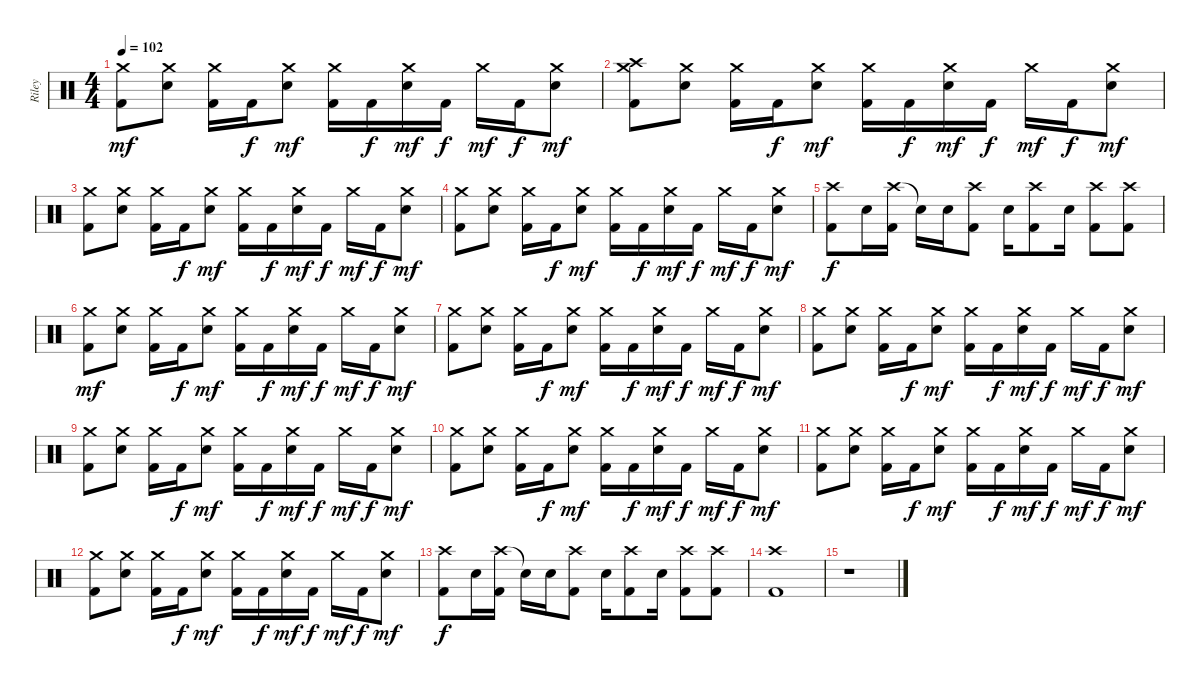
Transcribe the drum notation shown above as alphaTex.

\track ("Riley" "Riley") {instrument percussion}
\staff {score}
\articulation defaults
\ts (4 4)
\tempo 102
\clef neutral
\ks c
("Crash medium (hit)" "Kick (hit) 2").8{dy mf} ("Crash medium (hit)" "Electric Snare (hit)").8 ("Crash medium (hit)" "Kick (hit) 2").16 "Kick (hit) 2".16{dy f} ("Crash medium (hit)" "Electric Snare (hit)").8{dy mf} ("Crash medium (hit)" "Kick (hit) 2").16 "Kick (hit) 2".16{dy f} ("Crash medium (hit)" "Electric Snare (hit)").16{dy mf} "Kick (hit) 2".16{dy f} "Crash medium (hit)".16{dy mf} "Kick (hit) 2".16{dy f} ("Crash medium (hit)" "Electric Snare (hit)").8{dy mf} |
("Crash medium (hit)" "Crash high (hit)" "Kick (hit) 2").8 ("Crash medium (hit)" "Electric Snare (hit)").8 ("Crash medium (hit)" "Kick (hit) 2").16 "Kick (hit) 2".16{dy f} ("Crash medium (hit)" "Electric Snare (hit)").8{dy mf} ("Crash medium (hit)" "Kick (hit) 2").16 "Kick (hit) 2".16{dy f} ("Crash medium (hit)" "Electric Snare (hit)").16{dy mf} "Kick (hit) 2".16{dy f} "Crash medium (hit)".16{dy mf} "Kick (hit) 2".16{dy f} ("Crash medium (hit)" "Electric Snare (hit)").8{dy mf} |
("Crash medium (hit)" "Kick (hit) 2").8 ("Crash medium (hit)" "Electric Snare (hit)").8 ("Crash medium (hit)" "Kick (hit) 2").16 "Kick (hit) 2".16{dy f} ("Crash medium (hit)" "Electric Snare (hit)").8{dy mf} ("Crash medium (hit)" "Kick (hit) 2").16 "Kick (hit) 2".16{dy f} ("Crash medium (hit)" "Electric Snare (hit)").16{dy mf} "Kick (hit) 2".16{dy f} "Crash medium (hit)".16{dy mf} "Kick (hit) 2".16{dy f} ("Crash medium (hit)" "Electric Snare (hit)").8{dy mf} |
("Crash medium (hit)" "Kick (hit) 2").8 ("Crash medium (hit)" "Electric Snare (hit)").8 ("Crash medium (hit)" "Kick (hit) 2").16 "Kick (hit) 2".16{dy f} ("Crash medium (hit)" "Electric Snare (hit)").8{dy mf} ("Crash medium (hit)" "Kick (hit) 2").16 "Kick (hit) 2".16{dy f} ("Crash medium (hit)" "Electric Snare (hit)").16{dy mf} "Kick (hit) 2".16{dy f} "Crash medium (hit)".16{dy mf} "Kick (hit) 2".16{dy f} ("Crash medium (hit)" "Electric Snare (hit)").8{dy mf} |
("Crash high (hit)" "Kick (hit) 2").8{dy f} "Electric Snare (hit)".16 ("Crash high (hit)" "Kick (hit) 2").16 "Snare (hit)"{t}.16 "Electric Snare (hit)".16 ("Crash high (hit)" "Kick (hit) 2").8 "Electric Snare (hit)".16 ("Crash high (hit)" "Kick (hit) 2").8 "Electric Snare (hit)".16 ("Crash high (hit)" "Kick (hit) 2").8 ("Crash high (hit)" "Kick (hit) 2").8 |
("Crash medium (hit)" "Kick (hit) 2").8{dy mf} ("Crash medium (hit)" "Electric Snare (hit)").8 ("Crash medium (hit)" "Kick (hit) 2").16 "Kick (hit) 2".16{dy f} ("Crash medium (hit)" "Electric Snare (hit)").8{dy mf} ("Crash medium (hit)" "Kick (hit) 2").16 "Kick (hit) 2".16{dy f} ("Crash medium (hit)" "Electric Snare (hit)").16{dy mf} "Kick (hit) 2".16{dy f} "Crash medium (hit)".16{dy mf} "Kick (hit) 2".16{dy f} ("Crash medium (hit)" "Electric Snare (hit)").8{dy mf} |
("Crash medium (hit)" "Kick (hit) 2").8 ("Crash medium (hit)" "Electric Snare (hit)").8 ("Crash medium (hit)" "Kick (hit) 2").16 "Kick (hit) 2".16{dy f} ("Crash medium (hit)" "Electric Snare (hit)").8{dy mf} ("Crash medium (hit)" "Kick (hit) 2").16 "Kick (hit) 2".16{dy f} ("Crash medium (hit)" "Electric Snare (hit)").16{dy mf} "Kick (hit) 2".16{dy f} "Crash medium (hit)".16{dy mf} "Kick (hit) 2".16{dy f} ("Crash medium (hit)" "Electric Snare (hit)").8{dy mf} |
("Crash medium (hit)" "Kick (hit) 2").8 ("Crash medium (hit)" "Electric Snare (hit)").8 ("Crash medium (hit)" "Kick (hit) 2").16 "Kick (hit) 2".16{dy f} ("Crash medium (hit)" "Electric Snare (hit)").8{dy mf} ("Crash medium (hit)" "Kick (hit) 2").16 "Kick (hit) 2".16{dy f} ("Crash medium (hit)" "Electric Snare (hit)").16{dy mf} "Kick (hit) 2".16{dy f} "Crash medium (hit)".16{dy mf} "Kick (hit) 2".16{dy f} ("Crash medium (hit)" "Electric Snare (hit)").8{dy mf} |
("Crash medium (hit)" "Kick (hit) 2").8 ("Crash medium (hit)" "Electric Snare (hit)").8 ("Crash medium (hit)" "Kick (hit) 2").16 "Kick (hit) 2".16{dy f} ("Crash medium (hit)" "Electric Snare (hit)").8{dy mf} ("Crash medium (hit)" "Kick (hit) 2").16 "Kick (hit) 2".16{dy f} ("Crash medium (hit)" "Electric Snare (hit)").16{dy mf} "Kick (hit) 2".16{dy f} "Crash medium (hit)".16{dy mf} "Kick (hit) 2".16{dy f} ("Crash medium (hit)" "Electric Snare (hit)").8{dy mf} |
("Crash medium (hit)" "Kick (hit) 2").8 ("Crash medium (hit)" "Electric Snare (hit)").8 ("Crash medium (hit)" "Kick (hit) 2").16 "Kick (hit) 2".16{dy f} ("Crash medium (hit)" "Electric Snare (hit)").8{dy mf} ("Crash medium (hit)" "Kick (hit) 2").16 "Kick (hit) 2".16{dy f} ("Crash medium (hit)" "Electric Snare (hit)").16{dy mf} "Kick (hit) 2".16{dy f} "Crash medium (hit)".16{dy mf} "Kick (hit) 2".16{dy f} ("Crash medium (hit)" "Electric Snare (hit)").8{dy mf} |
("Crash medium (hit)" "Kick (hit) 2").8 ("Crash medium (hit)" "Electric Snare (hit)").8 ("Crash medium (hit)" "Kick (hit) 2").16 "Kick (hit) 2".16{dy f} ("Crash medium (hit)" "Electric Snare (hit)").8{dy mf} ("Crash medium (hit)" "Kick (hit) 2").16 "Kick (hit) 2".16{dy f} ("Crash medium (hit)" "Electric Snare (hit)").16{dy mf} "Kick (hit) 2".16{dy f} "Crash medium (hit)".16{dy mf} "Kick (hit) 2".16{dy f} ("Crash medium (hit)" "Electric Snare (hit)").8{dy mf} |
("Crash medium (hit)" "Kick (hit) 2").8 ("Crash medium (hit)" "Electric Snare (hit)").8 ("Crash medium (hit)" "Kick (hit) 2").16 "Kick (hit) 2".16{dy f} ("Crash medium (hit)" "Electric Snare (hit)").8{dy mf} ("Crash medium (hit)" "Kick (hit) 2").16 "Kick (hit) 2".16{dy f} ("Crash medium (hit)" "Electric Snare (hit)").16{dy mf} "Kick (hit) 2".16{dy f} "Crash medium (hit)".16{dy mf} "Kick (hit) 2".16{dy f} ("Crash medium (hit)" "Electric Snare (hit)").8{dy mf} |
("Crash high (hit)" "Kick (hit) 2").8{dy f} "Electric Snare (hit)".16 ("Crash high (hit)" "Kick (hit) 2").16 "Snare (hit)"{t}.16 "Electric Snare (hit)".16 ("Crash high (hit)" "Kick (hit) 2").8 "Electric Snare (hit)".16 ("Crash high (hit)" "Kick (hit) 2").8 "Electric Snare (hit)".16 ("Crash high (hit)" "Kick (hit) 2").8 ("Crash high (hit)" "Kick (hit) 2").8 |
("Crash high (hit)" "Kick (hit) 2").1 |
r.1
